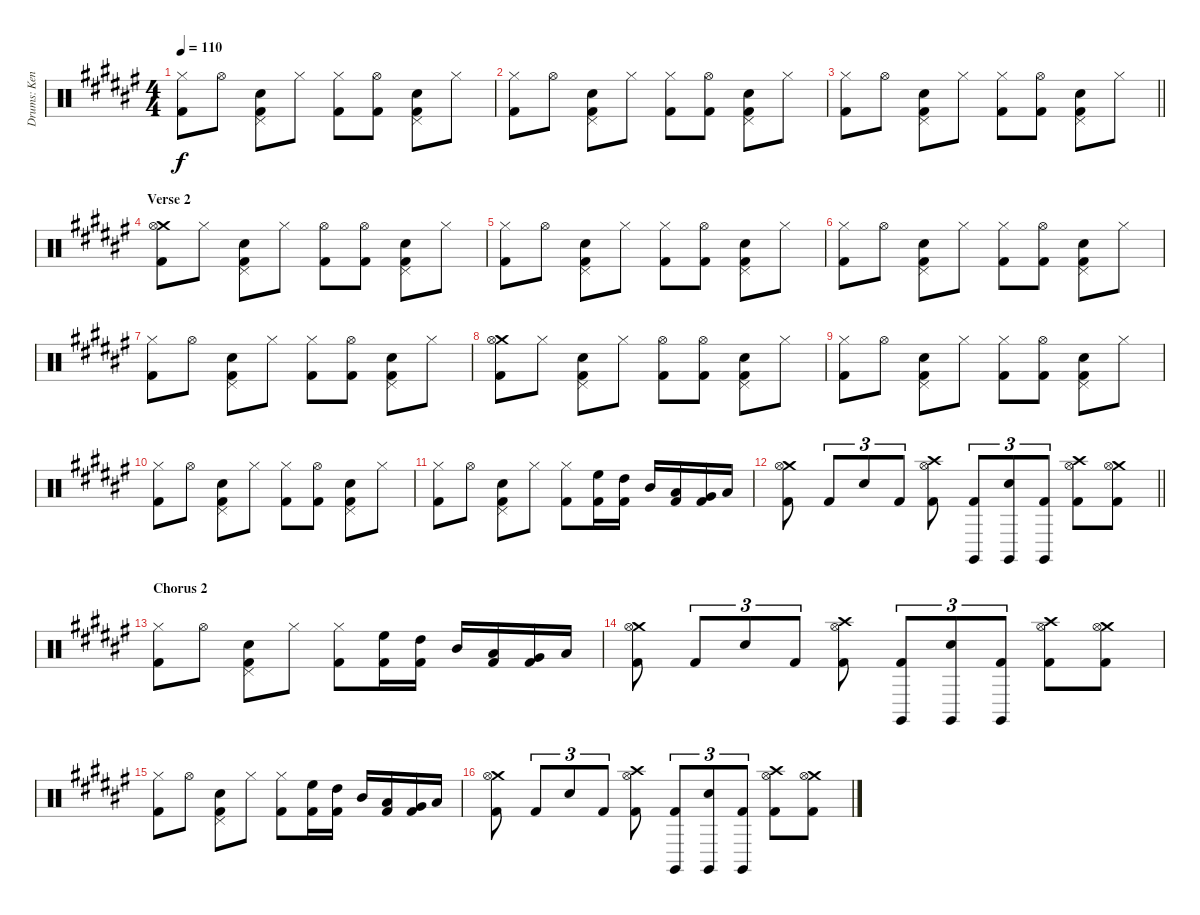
\track ("Drums: Kenny Aronoff" "Drums: Ken") {instrument percussion}
\staff {score}
\articulation defaults
\ts (4 4)
\tempo 110
\clef neutral
\ks f#
("Hi-Hat (closed)" "Kick (hit) 2").8{dy f} "Hi-Hat (open)".8 ("Pedal Hi-Hat (hit)" "Snare (hit) 2" "Kick (hit) 2").8 "Hi-Hat (closed)".8 ("Hi-Hat (closed)" "Kick (hit) 2").8 ("Hi-Hat (open)" "Kick (hit) 2").8 ("Pedal Hi-Hat (hit)" "Snare (hit) 2" "Kick (hit) 2").8 "Hi-Hat (closed)".8 |
("Hi-Hat (closed)" "Kick (hit) 2").8 "Hi-Hat (open)".8 ("Pedal Hi-Hat (hit)" "Snare (hit) 2" "Kick (hit) 2").8 "Hi-Hat (closed)".8 ("Hi-Hat (closed)" "Kick (hit) 2").8 ("Hi-Hat (open)" "Kick (hit) 2").8 ("Pedal Hi-Hat (hit)" "Snare (hit) 2" "Kick (hit) 2").8 "Hi-Hat (closed)".8 |
\barLineRight lightlight
("Hi-Hat (closed)" "Kick (hit) 2").8 "Hi-Hat (open)".8 ("Pedal Hi-Hat (hit)" "Snare (hit) 2" "Kick (hit) 2").8 "Hi-Hat (closed)".8 ("Hi-Hat (closed)" "Kick (hit) 2").8 ("Hi-Hat (open)" "Kick (hit) 2").8 ("Pedal Hi-Hat (hit)" "Snare (hit) 2" "Kick (hit) 2").8 "Hi-Hat (closed)".8 |
\section ("" "Verse 2")
("Crash medium (hit)" "Hi-Hat (open)" "Kick (hit) 2").8 "Hi-Hat (closed)".8 ("Pedal Hi-Hat (hit)" "Snare (hit) 2" "Kick (hit) 2").8 "Hi-Hat (closed)".8 ("Hi-Hat (open)" "Kick (hit) 2").8 ("Hi-Hat (open)" "Kick (hit) 2").8 ("Pedal Hi-Hat (hit)" "Snare (hit) 2" "Kick (hit) 2").8 "Hi-Hat (closed)".8 |
("Hi-Hat (closed)" "Kick (hit) 2").8 "Hi-Hat (open)".8 ("Pedal Hi-Hat (hit)" "Snare (hit) 2" "Kick (hit) 2").8 "Hi-Hat (closed)".8 ("Hi-Hat (closed)" "Kick (hit) 2").8 ("Hi-Hat (open)" "Kick (hit) 2").8 ("Pedal Hi-Hat (hit)" "Snare (hit) 2" "Kick (hit) 2").8 "Hi-Hat (closed)".8 |
("Hi-Hat (closed)" "Kick (hit) 2").8 "Hi-Hat (open)".8 ("Pedal Hi-Hat (hit)" "Snare (hit) 2" "Kick (hit) 2").8 "Hi-Hat (closed)".8 ("Hi-Hat (closed)" "Kick (hit) 2").8 ("Hi-Hat (open)" "Kick (hit) 2").8 ("Pedal Hi-Hat (hit)" "Snare (hit) 2" "Kick (hit) 2").8 "Hi-Hat (closed)".8 |
("Hi-Hat (closed)" "Kick (hit) 2").8 "Hi-Hat (open)".8 ("Pedal Hi-Hat (hit)" "Snare (hit) 2" "Kick (hit) 2").8 "Hi-Hat (closed)".8 ("Hi-Hat (closed)" "Kick (hit) 2").8 ("Hi-Hat (open)" "Kick (hit) 2").8 ("Pedal Hi-Hat (hit)" "Snare (hit) 2" "Kick (hit) 2").8 "Hi-Hat (closed)".8 |
("Crash medium (hit)" "Hi-Hat (open)" "Kick (hit) 2").8 "Hi-Hat (closed)".8 ("Pedal Hi-Hat (hit)" "Snare (hit) 2" "Kick (hit) 2").8 "Hi-Hat (closed)".8 ("Hi-Hat (open)" "Kick (hit) 2").8 ("Hi-Hat (open)" "Kick (hit) 2").8 ("Pedal Hi-Hat (hit)" "Snare (hit) 2" "Kick (hit) 2").8 "Hi-Hat (closed)".8 |
("Hi-Hat (closed)" "Kick (hit) 2").8 "Hi-Hat (open)".8 ("Pedal Hi-Hat (hit)" "Snare (hit) 2" "Kick (hit) 2").8 "Hi-Hat (closed)".8 ("Hi-Hat (closed)" "Kick (hit) 2").8 ("Hi-Hat (open)" "Kick (hit) 2").8 ("Pedal Hi-Hat (hit)" "Snare (hit) 2" "Kick (hit) 2").8 "Hi-Hat (closed)".8 |
("Hi-Hat (closed)" "Kick (hit) 2").8 "Hi-Hat (open)".8 ("Pedal Hi-Hat (hit)" "Snare (hit) 2" "Kick (hit) 2").8 "Hi-Hat (closed)".8 ("Hi-Hat (closed)" "Kick (hit) 2").8 ("Hi-Hat (open)" "Kick (hit) 2").8 ("Pedal Hi-Hat (hit)" "Snare (hit) 2" "Kick (hit) 2").8 "Hi-Hat (closed)".8 |
("Hi-Hat (closed)" "Kick (hit) 2").8 "Hi-Hat (open)".8 ("Pedal Hi-Hat (hit)" "Snare (hit) 2" "Kick (hit) 2").8 "Hi-Hat (closed)".8 ("Hi-Hat (closed)" "Kick (hit) 2").8 ("High Floor Tom (hit)" "Kick (hit) 2").16 ("High Tom (hit)" "Kick (hit) 2").16 "Mid Tom (hit)".16 ("Low Tom (hit)" "Kick (hit) 2").16 ("Very Low Tom (hit)" "Kick (hit) 2").16 "Low Floor Tom (hit)".16 |
\barLineRight lightlight
("Crash medium (hit)" "Hi-Hat (open)" "Kick (hit) 2").8 "Kick (hit) 2".8{tu (3 2)} "Snare (hit) 2".8{tu (3 2)} "Kick (hit) 2".8{tu (3 2)} ("Crash high (hit)" "Hi-Hat (open)" "Kick (hit) 2").8 ("Claves (hit)" "Kick (hit) 2").8{tu (3 2)} ("Claves (hit)" "Snare (hit) 2").8{tu (3 2)} ("Claves (hit)" "Kick (hit) 2").8{tu (3 2)} ("Crash high (hit)" "Hi-Hat (open)" "Kick (hit) 2").8 ("Crash medium (hit)" "Hi-Hat (open)" "Kick (hit) 2").8 |
\section ("" "Chorus 2")
("Hi-Hat (closed)" "Kick (hit) 2").8 "Hi-Hat (open)".8 ("Pedal Hi-Hat (hit)" "Snare (hit) 2" "Kick (hit) 2").8 "Hi-Hat (closed)".8 ("Hi-Hat (closed)" "Kick (hit) 2").8 ("High Floor Tom (hit)" "Kick (hit) 2").16 ("High Tom (hit)" "Kick (hit) 2").16 "Mid Tom (hit)".16 ("Low Tom (hit)" "Kick (hit) 2").16 ("Very Low Tom (hit)" "Kick (hit) 2").16 "Low Floor Tom (hit)".16 |
("Crash medium (hit)" "Hi-Hat (open)" "Kick (hit) 2").8 "Kick (hit) 2".8{tu (3 2)} "Snare (hit) 2".8{tu (3 2)} "Kick (hit) 2".8{tu (3 2)} ("Crash high (hit)" "Hi-Hat (open)" "Kick (hit) 2").8 ("Claves (hit)" "Kick (hit) 2").8{tu (3 2)} ("Claves (hit)" "Snare (hit) 2").8{tu (3 2)} ("Claves (hit)" "Kick (hit) 2").8{tu (3 2)} ("Crash high (hit)" "Hi-Hat (open)" "Kick (hit) 2").8 ("Crash medium (hit)" "Hi-Hat (open)" "Kick (hit) 2").8 |
("Hi-Hat (closed)" "Kick (hit) 2").8 "Hi-Hat (open)".8 ("Pedal Hi-Hat (hit)" "Snare (hit) 2" "Kick (hit) 2").8 "Hi-Hat (closed)".8 ("Hi-Hat (closed)" "Kick (hit) 2").8 ("High Floor Tom (hit)" "Kick (hit) 2").16 ("High Tom (hit)" "Kick (hit) 2").16 "Mid Tom (hit)".16 ("Low Tom (hit)" "Kick (hit) 2").16 ("Very Low Tom (hit)" "Kick (hit) 2").16 "Low Floor Tom (hit)".16 |
("Crash medium (hit)" "Hi-Hat (open)" "Kick (hit) 2").8 "Kick (hit) 2".8{tu (3 2)} "Snare (hit) 2".8{tu (3 2)} "Kick (hit) 2".8{tu (3 2)} ("Crash high (hit)" "Hi-Hat (open)" "Kick (hit) 2").8 ("Claves (hit)" "Kick (hit) 2").8{tu (3 2)} ("Claves (hit)" "Snare (hit) 2").8{tu (3 2)} ("Claves (hit)" "Kick (hit) 2").8{tu (3 2)} ("Crash high (hit)" "Hi-Hat (open)" "Kick (hit) 2").8 ("Crash medium (hit)" "Hi-Hat (open)" "Kick (hit) 2").8
